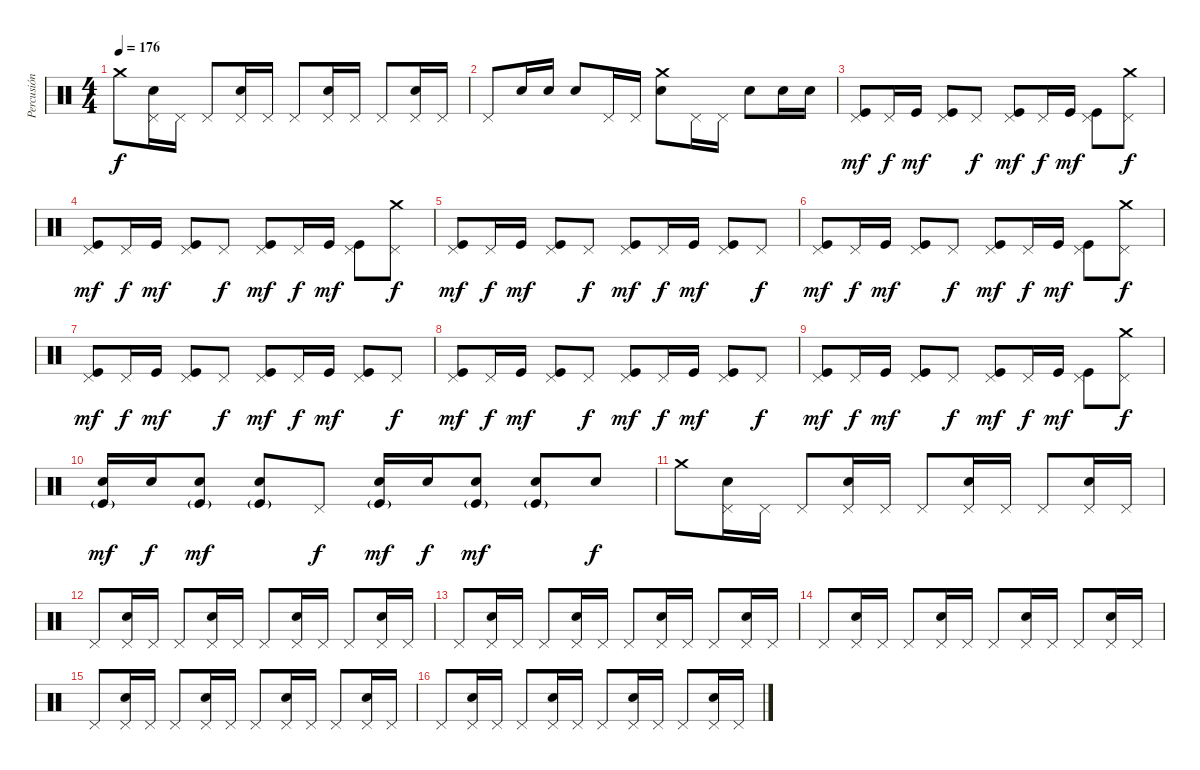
\track ("Percusión" "Percusión") {instrument percussion}
\staff {score}
\articulation defaults
\ts (4 4)
\tempo 176
\clef neutral
\ks c "Crash medium (hit)".8{dy f}
("Pedal Hi-Hat (hit)" "Snare (hit) 2").16 "Pedal Hi-Hat (hit)".16 "Pedal Hi-Hat (hit)".8 ("Pedal Hi-Hat (hit)" "Snare (hit) 2").16 "Pedal Hi-Hat (hit)".16 "Pedal Hi-Hat (hit)".8 ("Pedal Hi-Hat (hit)" "Snare (hit) 2").16 "Pedal Hi-Hat (hit)".16 "Pedal Hi-Hat (hit)".8 ("Pedal Hi-Hat (hit)" "Snare (hit) 2").16 "Pedal Hi-Hat (hit)".16 |
"Pedal Hi-Hat (hit)".8 "Snare (hit) 2".16 "Snare (hit) 2".16 "Snare (hit) 2".8 "Pedal Hi-Hat (hit)".16 "Pedal Hi-Hat (hit)".16 ("Crash medium (hit)" "Snare (hit) 2").8 "Pedal Hi-Hat (hit)".16 "Pedal Hi-Hat (hit)".16 "Snare (hit) 2".8 "Snare (hit) 2".16 "Snare (hit) 2".16 |
("Pedal Hi-Hat (hit)" "Kick (hit)").8{dy mf} "Pedal Hi-Hat (hit)".16{dy f} "Kick (hit)".16{dy mf} ("Pedal Hi-Hat (hit)" "Kick (hit)").8 "Pedal Hi-Hat (hit)".8{dy f} ("Pedal Hi-Hat (hit)" "Kick (hit)").8{dy mf} "Pedal Hi-Hat (hit)".16{dy f} "Kick (hit)".16{dy mf} ("Pedal Hi-Hat (hit)" "Kick (hit)").8 ("Crash medium (hit)" "Pedal Hi-Hat (hit)").8{dy f} |
("Pedal Hi-Hat (hit)" "Kick (hit)").8{dy mf} "Pedal Hi-Hat (hit)".16{dy f} "Kick (hit)".16{dy mf} ("Pedal Hi-Hat (hit)" "Kick (hit)").8 "Pedal Hi-Hat (hit)".8{dy f} ("Pedal Hi-Hat (hit)" "Kick (hit)").8{dy mf} "Pedal Hi-Hat (hit)".16{dy f} "Kick (hit)".16{dy mf} ("Pedal Hi-Hat (hit)" "Kick (hit)").8 ("Crash medium (hit)" "Pedal Hi-Hat (hit)").8{dy f} |
("Pedal Hi-Hat (hit)" "Kick (hit)").8{dy mf} "Pedal Hi-Hat (hit)".16{dy f} "Kick (hit)".16{dy mf} ("Pedal Hi-Hat (hit)" "Kick (hit)").8 "Pedal Hi-Hat (hit)".8{dy f} ("Pedal Hi-Hat (hit)" "Kick (hit)").8{dy mf} "Pedal Hi-Hat (hit)".16{dy f} "Kick (hit)".16{dy mf} ("Pedal Hi-Hat (hit)" "Kick (hit)").8 "Pedal Hi-Hat (hit)".8{dy f} |
("Pedal Hi-Hat (hit)" "Kick (hit)").8{dy mf} "Pedal Hi-Hat (hit)".16{dy f} "Kick (hit)".16{dy mf} ("Pedal Hi-Hat (hit)" "Kick (hit)").8 "Pedal Hi-Hat (hit)".8{dy f} ("Pedal Hi-Hat (hit)" "Kick (hit)").8{dy mf} "Pedal Hi-Hat (hit)".16{dy f} "Kick (hit)".16{dy mf} ("Pedal Hi-Hat (hit)" "Kick (hit)").8 ("Crash medium (hit)" "Pedal Hi-Hat (hit)").8{dy f} |
("Pedal Hi-Hat (hit)" "Kick (hit)").8{dy mf} "Pedal Hi-Hat (hit)".16{dy f} "Kick (hit)".16{dy mf} ("Pedal Hi-Hat (hit)" "Kick (hit)").8 "Pedal Hi-Hat (hit)".8{dy f} ("Pedal Hi-Hat (hit)" "Kick (hit)").8{dy mf} "Pedal Hi-Hat (hit)".16{dy f} "Kick (hit)".16{dy mf} ("Pedal Hi-Hat (hit)" "Kick (hit)").8 "Pedal Hi-Hat (hit)".8{dy f} |
("Pedal Hi-Hat (hit)" "Kick (hit)").8{dy mf} "Pedal Hi-Hat (hit)".16{dy f} "Kick (hit)".16{dy mf} ("Pedal Hi-Hat (hit)" "Kick (hit)").8 "Pedal Hi-Hat (hit)".8{dy f} ("Pedal Hi-Hat (hit)" "Kick (hit)").8{dy mf} "Pedal Hi-Hat (hit)".16{dy f} "Kick (hit)".16{dy mf} ("Pedal Hi-Hat (hit)" "Kick (hit)").8 "Pedal Hi-Hat (hit)".8{dy f} |
("Pedal Hi-Hat (hit)" "Kick (hit)").8{dy mf} "Pedal Hi-Hat (hit)".16{dy f} "Kick (hit)".16{dy mf} ("Pedal Hi-Hat (hit)" "Kick (hit)").8 "Pedal Hi-Hat (hit)".8{dy f} ("Pedal Hi-Hat (hit)" "Kick (hit)").8{dy mf} "Pedal Hi-Hat (hit)".16{dy f} "Kick (hit)".16{dy mf} ("Pedal Hi-Hat (hit)" "Kick (hit)").8 ("Crash medium (hit)" "Pedal Hi-Hat (hit)").8{dy f} |
("Snare (hit) 2" "Kick (hit)"{g}).16{dy mf} "Snare (hit) 2".16{dy f} ("Snare (hit) 2" "Kick (hit)"{g}).8{dy mf} ("Snare (hit) 2" "Kick (hit)"{g}).8 "Pedal Hi-Hat (hit)".8{dy f} ("Snare (hit) 2" "Kick (hit)"{g}).16{dy mf} "Snare (hit) 2".16{dy f} ("Snare (hit) 2" "Kick (hit)"{g}).8{dy mf} ("Snare (hit) 2" "Kick (hit)"{g}).8 "Snare (hit) 2".8{dy f} |
"Crash medium (hit)".8 ("Pedal Hi-Hat (hit)" "Snare (hit) 2").16 "Pedal Hi-Hat (hit)".16 "Pedal Hi-Hat (hit)".8 ("Pedal Hi-Hat (hit)" "Snare (hit) 2").16 "Pedal Hi-Hat (hit)".16 "Pedal Hi-Hat (hit)".8 ("Pedal Hi-Hat (hit)" "Snare (hit) 2").16 "Pedal Hi-Hat (hit)".16 "Pedal Hi-Hat (hit)".8 ("Pedal Hi-Hat (hit)" "Snare (hit) 2").16 "Pedal Hi-Hat (hit)".16 |
"Pedal Hi-Hat (hit)".8 ("Pedal Hi-Hat (hit)" "Snare (hit) 2").16 "Pedal Hi-Hat (hit)".16 "Pedal Hi-Hat (hit)".8 ("Pedal Hi-Hat (hit)" "Snare (hit) 2").16 "Pedal Hi-Hat (hit)".16 "Pedal Hi-Hat (hit)".8 ("Pedal Hi-Hat (hit)" "Snare (hit) 2").16 "Pedal Hi-Hat (hit)".16 "Pedal Hi-Hat (hit)".8 ("Pedal Hi-Hat (hit)" "Snare (hit) 2").16 "Pedal Hi-Hat (hit)".16 |
"Pedal Hi-Hat (hit)".8 ("Pedal Hi-Hat (hit)" "Snare (hit) 2").16 "Pedal Hi-Hat (hit)".16 "Pedal Hi-Hat (hit)".8 ("Pedal Hi-Hat (hit)" "Snare (hit) 2").16 "Pedal Hi-Hat (hit)".16 "Pedal Hi-Hat (hit)".8 ("Pedal Hi-Hat (hit)" "Snare (hit) 2").16 "Pedal Hi-Hat (hit)".16 "Pedal Hi-Hat (hit)".8 ("Pedal Hi-Hat (hit)" "Snare (hit) 2").16 "Pedal Hi-Hat (hit)".16 |
"Pedal Hi-Hat (hit)".8 ("Pedal Hi-Hat (hit)" "Snare (hit) 2").16 "Pedal Hi-Hat (hit)".16 "Pedal Hi-Hat (hit)".8 ("Pedal Hi-Hat (hit)" "Snare (hit) 2").16 "Pedal Hi-Hat (hit)".16 "Pedal Hi-Hat (hit)".8 ("Pedal Hi-Hat (hit)" "Snare (hit) 2").16 "Pedal Hi-Hat (hit)".16 "Pedal Hi-Hat (hit)".8 ("Pedal Hi-Hat (hit)" "Snare (hit) 2").16 "Pedal Hi-Hat (hit)".16 |
"Pedal Hi-Hat (hit)".8 ("Pedal Hi-Hat (hit)" "Snare (hit) 2").16 "Pedal Hi-Hat (hit)".16 "Pedal Hi-Hat (hit)".8 ("Pedal Hi-Hat (hit)" "Snare (hit) 2").16 "Pedal Hi-Hat (hit)".16 "Pedal Hi-Hat (hit)".8 ("Pedal Hi-Hat (hit)" "Snare (hit) 2").16 "Pedal Hi-Hat (hit)".16 "Pedal Hi-Hat (hit)".8 ("Pedal Hi-Hat (hit)" "Snare (hit) 2").16 "Pedal Hi-Hat (hit)".16 |
"Pedal Hi-Hat (hit)".8 ("Pedal Hi-Hat (hit)" "Snare (hit) 2").16 "Pedal Hi-Hat (hit)".16 "Pedal Hi-Hat (hit)".8 ("Pedal Hi-Hat (hit)" "Snare (hit) 2").16 "Pedal Hi-Hat (hit)".16 "Pedal Hi-Hat (hit)".8 ("Pedal Hi-Hat (hit)" "Snare (hit) 2").16 "Pedal Hi-Hat (hit)".16 "Pedal Hi-Hat (hit)".8 ("Pedal Hi-Hat (hit)" "Snare (hit) 2").16 "Pedal Hi-Hat (hit)".16
